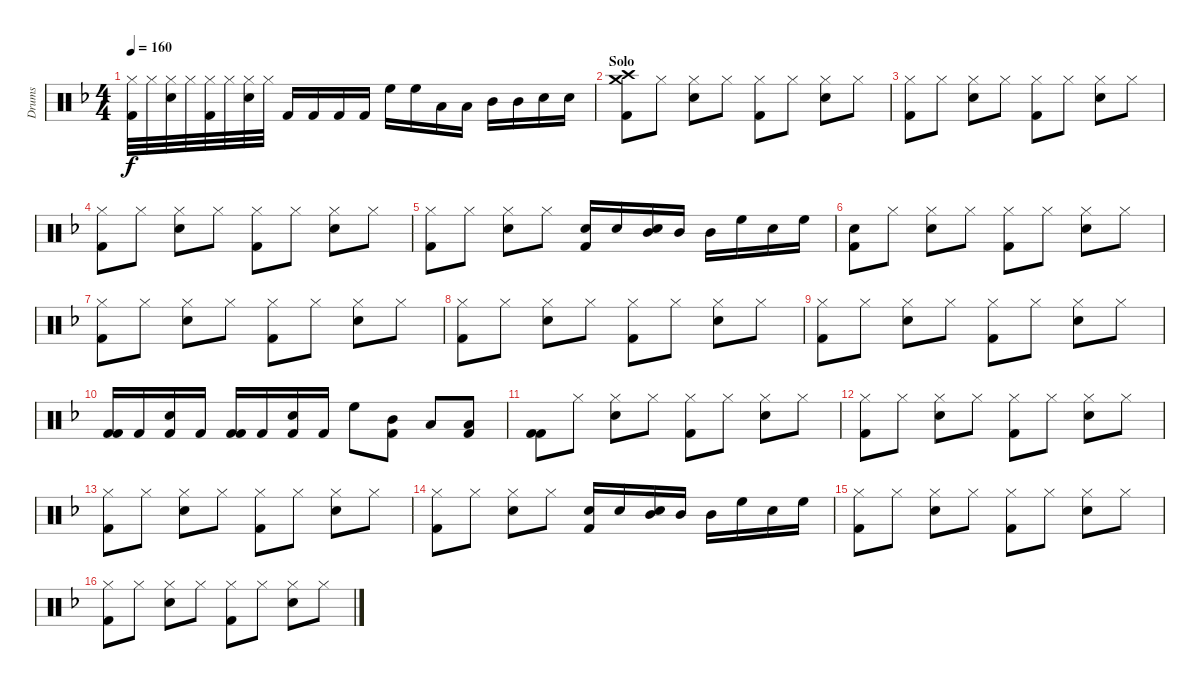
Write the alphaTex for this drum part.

\track ("Drums" "Drums") {instrument percussion}
\staff {score}
\articulation defaults
\ts (4 4)
\tempo 160
\clef neutral
\ks dminor
("Hi-Hat (closed)" "Kick (hit) 2").32{dy f} "Hi-Hat (closed)".32 ("Hi-Hat (closed)" "Electric Snare (hit)").32 "Hi-Hat (closed)".32 ("Hi-Hat (closed)" "Kick (hit) 2").32 "Hi-Hat (closed)".32 ("Hi-Hat (closed)" "Electric Snare (hit)").32 "Hi-Hat (closed)".32 "Kick (hit) 2".16 "Kick (hit) 2".16 "Kick (hit) 2".16 "Kick (hit) 2".16 "High Floor Tom (hit)".16 "High Floor Tom (hit)".16 "Low Floor Tom (hit)".16 "Low Floor Tom (hit)".16 "Mid Tom (hit)".16 "Mid Tom (hit)".16 "Snare (hit) 2".16 "Snare (hit) 2".16 |
\section ("" "Solo")
("Crash high (hit)" "Crash medium (hit)" "Kick (hit) 2").8 "Hi-Hat (closed)".8 ("Hi-Hat (closed)" "Electric Snare (hit)").8 "Hi-Hat (closed)".8 ("Hi-Hat (closed)" "Kick (hit) 2").8 "Hi-Hat (closed)".8 ("Hi-Hat (closed)" "Electric Snare (hit)").8 "Hi-Hat (closed)".8 |
("Hi-Hat (closed)" "Kick (hit) 2").8 "Hi-Hat (closed)".8 ("Hi-Hat (closed)" "Electric Snare (hit)").8 "Hi-Hat (closed)".8 ("Hi-Hat (closed)" "Kick (hit) 2").8 "Hi-Hat (closed)".8 ("Hi-Hat (closed)" "Electric Snare (hit)").8 "Hi-Hat (closed)".8 |
("Hi-Hat (closed)" "Kick (hit) 2").8 "Hi-Hat (closed)".8 ("Hi-Hat (closed)" "Electric Snare (hit)").8 "Hi-Hat (closed)".8 ("Hi-Hat (closed)" "Kick (hit) 2").8 "Hi-Hat (closed)".8 ("Hi-Hat (closed)" "Electric Snare (hit)").8 "Hi-Hat (closed)".8 |
("Hi-Hat (closed)" "Kick (hit) 2").8 "Hi-Hat (closed)".8 ("Hi-Hat (closed)" "Electric Snare (hit)").8 "Hi-Hat (closed)".8 ("Snare (hit) 2" "Kick (hit) 2").16 "Snare (hit) 2".16 ("Mid Tom (hit)" "Electric Snare (hit)").16 "Mid Tom (hit)".16 "Mid Tom (hit)".16 "High Floor Tom (hit)".16 "Snare (hit) 2".16 "High Floor Tom (hit)".16 |
("Snare (hit) 2" "Kick (hit) 2").8 "Hi-Hat (closed)".8 ("Hi-Hat (closed)" "Electric Snare (hit)").8 "Hi-Hat (closed)".8 ("Hi-Hat (closed)" "Kick (hit) 2").8 "Hi-Hat (closed)".8 ("Hi-Hat (closed)" "Electric Snare (hit)").8 "Hi-Hat (closed)".8 |
("Hi-Hat (closed)" "Kick (hit) 2").8 "Hi-Hat (closed)".8 ("Hi-Hat (closed)" "Electric Snare (hit)").8 "Hi-Hat (closed)".8 ("Hi-Hat (closed)" "Kick (hit) 2").8 "Hi-Hat (closed)".8 ("Hi-Hat (closed)" "Electric Snare (hit)").8 "Hi-Hat (closed)".8 |
("Hi-Hat (closed)" "Kick (hit) 2").8 "Hi-Hat (closed)".8 ("Hi-Hat (closed)" "Electric Snare (hit)").8 "Hi-Hat (closed)".8 ("Hi-Hat (closed)" "Kick (hit) 2").8 "Hi-Hat (closed)".8 ("Hi-Hat (closed)" "Electric Snare (hit)").8 "Hi-Hat (closed)".8 |
("Hi-Hat (closed)" "Kick (hit) 2").8 "Hi-Hat (closed)".8 ("Hi-Hat (closed)" "Electric Snare (hit)").8 "Hi-Hat (closed)".8 ("Hi-Hat (closed)" "Kick (hit) 2").8 "Hi-Hat (closed)".8 ("Hi-Hat (closed)" "Electric Snare (hit)").8 "Hi-Hat (closed)".8 |
("Kick (hit) 2" "Kick (hit) 2").16 "Kick (hit) 2".16 ("Kick (hit) 2" "Electric Snare (hit)").16 "Kick (hit) 2".16 ("Kick (hit) 2" "Kick (hit) 2").16 "Kick (hit) 2".16 ("Kick (hit) 2" "Electric Snare (hit)").16 "Kick (hit) 2".16 "High Floor Tom (hit)".8 ("Mid Tom (hit)" "Kick (hit) 2").8 "Low Tom (hit)".8 ("Low Floor Tom (hit)" "Kick (hit) 2").8 |
("Kick (hit) 2" "Kick (hit) 2").8 "Hi-Hat (closed)".8 ("Hi-Hat (closed)" "Electric Snare (hit)").8 "Hi-Hat (closed)".8 ("Hi-Hat (closed)" "Kick (hit) 2").8 "Hi-Hat (closed)".8 ("Hi-Hat (closed)" "Electric Snare (hit)").8 "Hi-Hat (closed)".8 |
("Hi-Hat (closed)" "Kick (hit) 2").8 "Hi-Hat (closed)".8 ("Hi-Hat (closed)" "Electric Snare (hit)").8 "Hi-Hat (closed)".8 ("Hi-Hat (closed)" "Kick (hit) 2").8 "Hi-Hat (closed)".8 ("Hi-Hat (closed)" "Electric Snare (hit)").8 "Hi-Hat (closed)".8 |
("Hi-Hat (closed)" "Kick (hit) 2").8 "Hi-Hat (closed)".8 ("Hi-Hat (closed)" "Electric Snare (hit)").8 "Hi-Hat (closed)".8 ("Hi-Hat (closed)" "Kick (hit) 2").8 "Hi-Hat (closed)".8 ("Hi-Hat (closed)" "Electric Snare (hit)").8 "Hi-Hat (closed)".8 |
("Hi-Hat (closed)" "Kick (hit) 2").8 "Hi-Hat (closed)".8 ("Hi-Hat (closed)" "Electric Snare (hit)").8 "Hi-Hat (closed)".8 ("Snare (hit) 2" "Kick (hit) 2").16 "Snare (hit) 2".16 ("Mid Tom (hit)" "Electric Snare (hit)").16 "Mid Tom (hit)".16 "Mid Tom (hit)".16 "High Floor Tom (hit)".16 "Snare (hit) 2".16 "High Floor Tom (hit)".16 |
("Hi-Hat (closed)" "Kick (hit) 2").8 "Hi-Hat (closed)".8 ("Hi-Hat (closed)" "Electric Snare (hit)").8 "Hi-Hat (closed)".8 ("Hi-Hat (closed)" "Kick (hit) 2").8 "Hi-Hat (closed)".8 ("Hi-Hat (closed)" "Electric Snare (hit)").8 "Hi-Hat (closed)".8 |
("Hi-Hat (closed)" "Kick (hit) 2").8 "Hi-Hat (closed)".8 ("Hi-Hat (closed)" "Electric Snare (hit)").8 "Hi-Hat (closed)".8 ("Hi-Hat (closed)" "Kick (hit) 2").8 "Hi-Hat (closed)".8 ("Hi-Hat (closed)" "Electric Snare (hit)").8 "Hi-Hat (closed)".8
